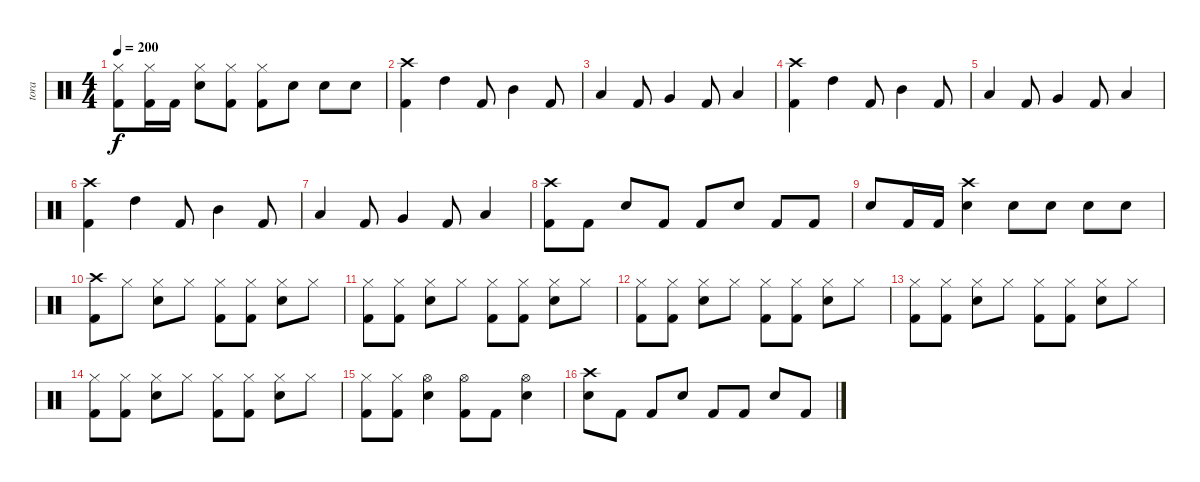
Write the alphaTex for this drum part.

\track ("tora" "tora") {instrument percussion}
\staff {score}
\articulation defaults
\ts (4 4)
\tempo 200
\clef neutral
\ks c
("Hi-Hat (closed)" "Kick (hit) 2").8{dy f} ("Hi-Hat (closed)" "Kick (hit) 2").16 "Kick (hit) 2".16 ("Hi-Hat (closed)" "Snare (hit) 2").8 ("Hi-Hat (closed)" "Kick (hit) 2").8 ("Hi-Hat (closed)" "Kick (hit) 2").8 "Snare (hit) 2".8 "Snare (hit) 2".8 "Snare (hit) 2".8 |
("Crash high (hit)" "Kick (hit) 2").4 "High Tom (hit)".4 "Kick (hit) 2".8 "Mid Tom (hit)".4 "Kick (hit) 2".8 |
"Low Tom (hit)".4 "Kick (hit) 2".8 "Very Low Tom (hit)".4 "Kick (hit) 2".8 "Low Floor Tom (hit)".4 |
("Crash high (hit)" "Kick (hit) 2").4 "High Tom (hit)".4 "Kick (hit) 2".8 "Mid Tom (hit)".4 "Kick (hit) 2".8 |
"Low Tom (hit)".4 "Kick (hit) 2".8 "Very Low Tom (hit)".4 "Kick (hit) 2".8 "Low Floor Tom (hit)".4 |
("Crash high (hit)" "Kick (hit) 2").4 "High Tom (hit)".4 "Kick (hit) 2".8 "Mid Tom (hit)".4 "Kick (hit) 2".8 |
"Low Tom (hit)".4 "Kick (hit) 2".8 "Very Low Tom (hit)".4 "Kick (hit) 2".8 "Low Floor Tom (hit)".4 |
("Crash high (hit)" "Kick (hit) 2").8 "Kick (hit) 2".8 "Snare (hit) 2".8 "Kick (hit) 2".8 "Kick (hit) 2".8 "Snare (hit) 2".8 "Kick (hit) 2".8 "Kick (hit) 2".8 |
"Snare (hit) 2".8 "Kick (hit) 2".16 "Kick (hit) 2".16 ("Crash high (hit)" "Snare (hit) 2").4 "Snare (hit) 2".8 "Snare (hit) 2".8 "Snare (hit) 2".8 "Snare (hit) 2".8 |
("Crash high (hit)" "Kick (hit) 2").8 "Hi-Hat (closed)".8 ("Hi-Hat (closed)" "Snare (hit) 2").8 "Hi-Hat (closed)".8 ("Hi-Hat (closed)" "Kick (hit) 2").8 ("Hi-Hat (closed)" "Kick (hit) 2").8 ("Hi-Hat (closed)" "Snare (hit) 2").8 "Hi-Hat (closed)".8 |
("Hi-Hat (closed)" "Kick (hit) 2").8 ("Hi-Hat (closed)" "Kick (hit) 2").8 ("Hi-Hat (closed)" "Snare (hit) 2").8 "Hi-Hat (closed)".8 ("Hi-Hat (closed)" "Kick (hit) 2").8 ("Hi-Hat (closed)" "Kick (hit) 2").8 ("Hi-Hat (closed)" "Snare (hit) 2").8 "Hi-Hat (closed)".8 |
("Hi-Hat (closed)" "Kick (hit) 2").8 ("Hi-Hat (closed)" "Kick (hit) 2").8 ("Hi-Hat (closed)" "Snare (hit) 2").8 "Hi-Hat (closed)".8 ("Hi-Hat (closed)" "Kick (hit) 2").8 ("Hi-Hat (closed)" "Kick (hit) 2").8 ("Hi-Hat (closed)" "Snare (hit) 2").8 "Hi-Hat (closed)".8 |
("Hi-Hat (closed)" "Kick (hit) 2").8 ("Hi-Hat (closed)" "Kick (hit) 2").8 ("Hi-Hat (closed)" "Snare (hit) 2").8 "Hi-Hat (closed)".8 ("Hi-Hat (closed)" "Kick (hit) 2").8 ("Hi-Hat (closed)" "Kick (hit) 2").8 ("Hi-Hat (closed)" "Snare (hit) 2").8 "Hi-Hat (closed)".8 |
("Hi-Hat (closed)" "Kick (hit) 2").8 ("Hi-Hat (closed)" "Kick (hit) 2").8 ("Hi-Hat (closed)" "Snare (hit) 2").8 "Hi-Hat (closed)".8 ("Hi-Hat (closed)" "Kick (hit) 2").8 ("Hi-Hat (closed)" "Kick (hit) 2").8 ("Hi-Hat (closed)" "Snare (hit) 2").8 "Hi-Hat (closed)".8 |
("Hi-Hat (closed)" "Kick (hit) 2").8 ("Hi-Hat (closed)" "Kick (hit) 2").8 ("Hi-Hat (open)" "Snare (hit) 2").4 ("Hi-Hat (open)" "Kick (hit) 2").8 "Kick (hit) 2".8 ("Hi-Hat (open)" "Snare (hit) 2").4 |
("Crash high (hit)" "Snare (hit) 2").8 "Kick (hit) 2".8 "Kick (hit) 2".8 "Snare (hit) 2".8 "Kick (hit) 2".8 "Kick (hit) 2".8 "Snare (hit) 2".8 "Kick (hit) 2".8
